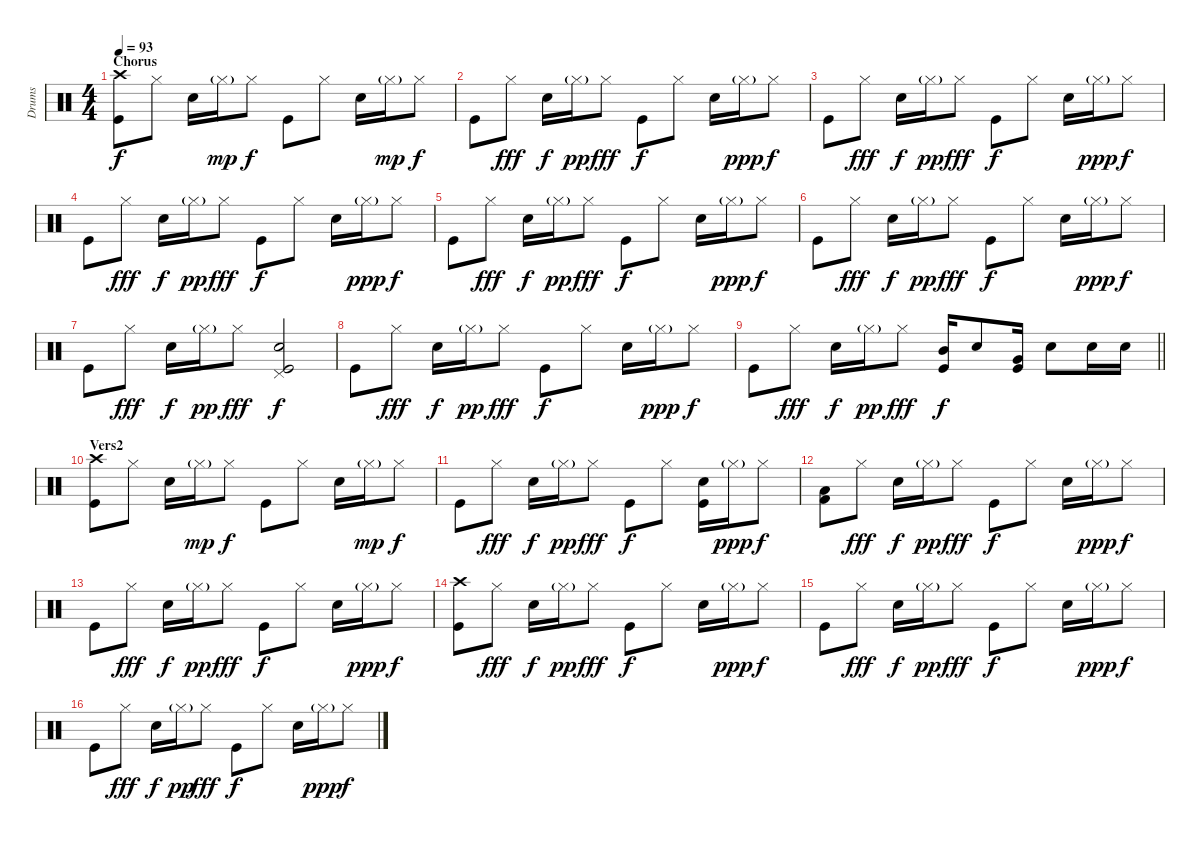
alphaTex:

\track ("Drums" "Drums") {instrument percussion}
\staff {score}
\articulation defaults
\ts (4 4)
\section ("" "Chorus")
\tempo 93
\clef neutral
\ks c
("Crash high (hit)" "Kick (hit)").8{dy f} "Hi-Hat (closed)".8 "Snare (hit) 2".16 "Hi-Hat (closed)"{g}.16{dy mp} "Hi-Hat (closed)".8{dy f} "Kick (hit)".8 "Hi-Hat (closed)".8 "Snare (hit) 2".16 "Hi-Hat (closed)"{g}.16{dy mp} "Hi-Hat (closed)".8{dy f} |
"Kick (hit)".8 "Hi-Hat (closed)".8{dy fff} "Snare (hit) 2".16{dy f} "Hi-Hat (closed)"{g}.16{dy pp} "Hi-Hat (closed)".8{dy fff} "Kick (hit)".8{dy f} "Hi-Hat (closed)".8 "Snare (hit) 2".16 "Hi-Hat (closed)"{g}.16{dy ppp} "Hi-Hat (closed)".8{dy f} |
"Kick (hit)".8 "Hi-Hat (closed)".8{dy fff} "Snare (hit) 2".16{dy f} "Hi-Hat (closed)"{g}.16{dy pp} "Hi-Hat (closed)".8{dy fff} "Kick (hit)".8{dy f} "Hi-Hat (closed)".8 "Snare (hit) 2".16 "Hi-Hat (closed)"{g}.16{dy ppp} "Hi-Hat (closed)".8{dy f} |
"Kick (hit)".8 "Hi-Hat (closed)".8{dy fff} "Snare (hit) 2".16{dy f} "Hi-Hat (closed)"{g}.16{dy pp} "Hi-Hat (closed)".8{dy fff} "Kick (hit)".8{dy f} "Hi-Hat (closed)".8 "Snare (hit) 2".16 "Hi-Hat (closed)"{g}.16{dy ppp} "Hi-Hat (closed)".8{dy f} |
"Kick (hit)".8 "Hi-Hat (closed)".8{dy fff} "Snare (hit) 2".16{dy f} "Hi-Hat (closed)"{g}.16{dy pp} "Hi-Hat (closed)".8{dy fff} "Kick (hit)".8{dy f} "Hi-Hat (closed)".8 "Snare (hit) 2".16 "Hi-Hat (closed)"{g}.16{dy ppp} "Hi-Hat (closed)".8{dy f} |
"Kick (hit)".8 "Hi-Hat (closed)".8{dy fff} "Snare (hit) 2".16{dy f} "Hi-Hat (closed)"{g}.16{dy pp} "Hi-Hat (closed)".8{dy fff} "Kick (hit)".8{dy f} "Hi-Hat (closed)".8 "Snare (hit) 2".16 "Hi-Hat (closed)"{g}.16{dy ppp} "Hi-Hat (closed)".8{dy f} |
"Kick (hit)".8 "Hi-Hat (closed)".8{dy fff} "Snare (hit) 2".16{dy f} "Hi-Hat (closed)"{g}.16{dy pp} "Hi-Hat (closed)".8{dy fff} ("Snare (hit) 2" "Pedal Hi-Hat (hit)" "Kick (hit)").2{dy f} |
"Kick (hit)".8 "Hi-Hat (closed)".8{dy fff} "Snare (hit) 2".16{dy f} "Hi-Hat (closed)"{g}.16{dy pp} "Hi-Hat (closed)".8{dy fff} "Kick (hit)".8{dy f} "Hi-Hat (closed)".8 "Snare (hit) 2".16 "Hi-Hat (closed)"{g}.16{dy ppp} "Hi-Hat (closed)".8{dy f} |
\barLineRight lightlight "Kick (hit)".8 "Hi-Hat (closed)".8{dy fff} "Snare (hit) 2".16{dy f} "Hi-Hat (closed)"{g}.16{dy pp} "Hi-Hat (closed)".8{dy fff}
("Mid Tom (hit)" "Kick (hit)").16{dy f} "Electric Snare (hit)".8 ("Very Low Tom (hit)" "Kick (hit)").16 "Electric Snare (hit)".8 "Snare (hit) 2".16 "Snare (hit) 2".16 |
\section ("" "Vers2")
("Crash high (hit)" "Kick (hit)").8 "Hi-Hat (closed)".8 "Snare (hit) 2".16 "Hi-Hat (closed)"{g}.16{dy mp} "Hi-Hat (closed)".8{dy f} "Kick (hit)".8 "Hi-Hat (closed)".8 "Snare (hit) 2".16 "Hi-Hat (closed)"{g}.16{dy mp} "Hi-Hat (closed)".8{dy f} |
"Kick (hit)".8 "Hi-Hat (closed)".8{dy fff} "Snare (hit) 2".16{dy f} "Hi-Hat (closed)"{g}.16{dy pp} "Hi-Hat (closed)".8{dy fff} "Kick (hit)".8{dy f} "Hi-Hat (closed)".8 ("Snare (hit) 2" "Kick (hit)").16 "Hi-Hat (closed)"{g}.16{dy ppp} "Hi-Hat (closed)".8{dy f} |
("Low Floor Tom (hit)" "Kick (hit) 2").8 "Hi-Hat (closed)".8{dy fff} "Snare (hit) 2".16{dy f} "Hi-Hat (closed)"{g}.16{dy pp} "Hi-Hat (closed)".8{dy fff} "Kick (hit)".8{dy f} "Hi-Hat (closed)".8 "Snare (hit) 2".16 "Hi-Hat (closed)"{g}.16{dy ppp} "Hi-Hat (closed)".8{dy f} |
"Kick (hit)".8 "Hi-Hat (closed)".8{dy fff} "Snare (hit) 2".16{dy f} "Hi-Hat (closed)"{g}.16{dy pp} "Hi-Hat (closed)".8{dy fff} "Kick (hit)".8{dy f} "Hi-Hat (closed)".8 "Snare (hit) 2".16 "Hi-Hat (closed)"{g}.16{dy ppp} "Hi-Hat (closed)".8{dy f} |
("Crash high (hit)" "Kick (hit)").8 "Hi-Hat (closed)".8{dy fff} "Snare (hit) 2".16{dy f} "Hi-Hat (closed)"{g}.16{dy pp} "Hi-Hat (closed)".8{dy fff} "Kick (hit)".8{dy f} "Hi-Hat (closed)".8 "Snare (hit) 2".16 "Hi-Hat (closed)"{g}.16{dy ppp} "Hi-Hat (closed)".8{dy f} |
"Kick (hit)".8 "Hi-Hat (closed)".8{dy fff} "Snare (hit) 2".16{dy f} "Hi-Hat (closed)"{g}.16{dy pp} "Hi-Hat (closed)".8{dy fff} "Kick (hit)".8{dy f} "Hi-Hat (closed)".8 "Snare (hit) 2".16 "Hi-Hat (closed)"{g}.16{dy ppp} "Hi-Hat (closed)".8{dy f} |
"Kick (hit)".8 "Hi-Hat (closed)".8{dy fff} "Snare (hit) 2".16{dy f} "Hi-Hat (closed)"{g}.16{dy pp} "Hi-Hat (closed)".8{dy fff} "Kick (hit)".8{dy f} "Hi-Hat (closed)".8 "Snare (hit) 2".16 "Hi-Hat (closed)"{g}.16{dy ppp} "Hi-Hat (closed)".8{dy f}
